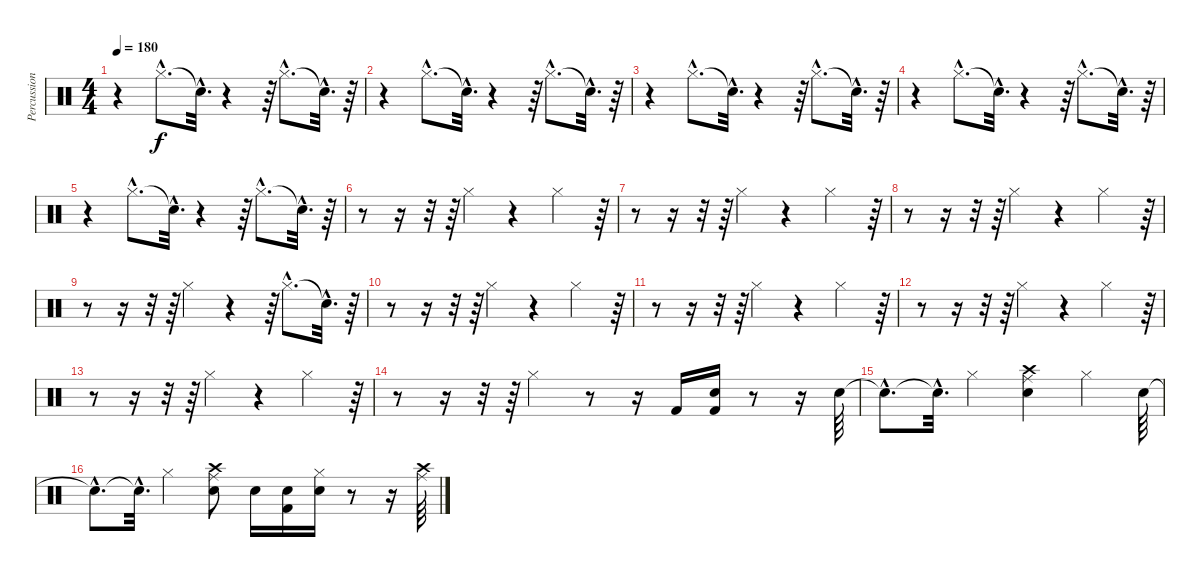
\track ("Percussion" "Percussion") {instrument percussion}
\staff {score}
\articulation defaults
\ts (4 4)
\tempo 180
\clef neutral
\ks c
r.4{dy f} "Hi-Hat (closed)"{hac}.8{d} "Snare (hit)"{hac t}.32{d} r.4 r.64 "Hi-Hat (closed)"{hac}.8{d} "Snare (hit)"{hac t}.32{d} r.64 |
r.4 "Hi-Hat (closed)"{hac}.8{d} "Snare (hit)"{hac t}.32{d} r.4 r.64 "Hi-Hat (closed)"{hac}.8{d} "Snare (hit)"{hac t}.32{d} r.64 |
r.4 "Hi-Hat (closed)"{hac}.8{d} "Snare (hit)"{hac t}.32{d} r.4 r.64 "Hi-Hat (closed)"{hac}.8{d} "Snare (hit)"{hac t}.32{d} r.64 |
r.4 "Hi-Hat (closed)"{hac}.8{d} "Snare (hit)"{hac t}.32{d} r.4 r.64 "Hi-Hat (closed)"{hac}.8{d} "Snare (hit)"{hac t}.32{d} r.64 |
r.4 "Hi-Hat (closed)"{hac}.8{d} "Snare (hit)"{hac t}.32{d} r.4 r.64 "Hi-Hat (closed)"{hac}.8{d} "Snare (hit)"{hac t}.32{d} r.64 |
r.8 r.16 r.32 r.64 "Hi-Hat (closed)".4 r.4 "Hi-Hat (closed)".4 r.64 |
r.8 r.16 r.32 r.64 "Hi-Hat (closed)".4 r.4 "Hi-Hat (closed)".4 r.64 |
r.8 r.16 r.32 r.64 "Hi-Hat (closed)".4 r.4 "Hi-Hat (closed)".4 r.64 |
r.8 r.16 r.32 r.64 "Hi-Hat (closed)".4 r.4 r.64 "Hi-Hat (closed)"{hac}.8{d} "Snare (hit)"{hac t}.32{d} r.64 |
r.8 r.16 r.32 r.64 "Hi-Hat (closed)".4 r.4 "Hi-Hat (closed)".4 r.64 |
r.8 r.16 r.32 r.64 "Hi-Hat (closed)".4 r.4 "Hi-Hat (closed)".4 r.64 |
r.8 r.16 r.32 r.64 "Hi-Hat (closed)".4 r.4 "Hi-Hat (closed)".4 r.64 |
r.8 r.16 r.32 r.64 "Hi-Hat (closed)".4 r.4 "Hi-Hat (closed)".4 r.64 |
r.8 r.16 r.32 r.64 "Hi-Hat (closed)".4 r.8 r.16 "Kick (hit) 2".16 ("Snare (hit) 2" "Kick (hit) 2").16 r.8 r.16 "Snare (hit) 2".64 |
"Snare (hit)"{hac t}.8{d} "Snare (hit)"{hac t}.32{d} "Hi-Hat (closed)".4 ("Ride (middle)" "Snare (hit) 2" "Crash high (hit)").4 "Hi-Hat (closed)".4 "Snare (hit) 2".64 |
"Snare (hit)"{hac t}.8{d} "Snare (hit)"{hac t}.32{d} "Hi-Hat (closed)".4 ("Snare (hit) 2" "Ride (middle)" "Crash high (hit)").8 "Snare (hit) 2".16 ("Snare (hit) 2" "Kick (hit) 2").16 ("Hi-Hat (closed)" "Snare (hit) 2").16 r.8 r.16 ("Ride (middle)" "Crash high (hit)").64
